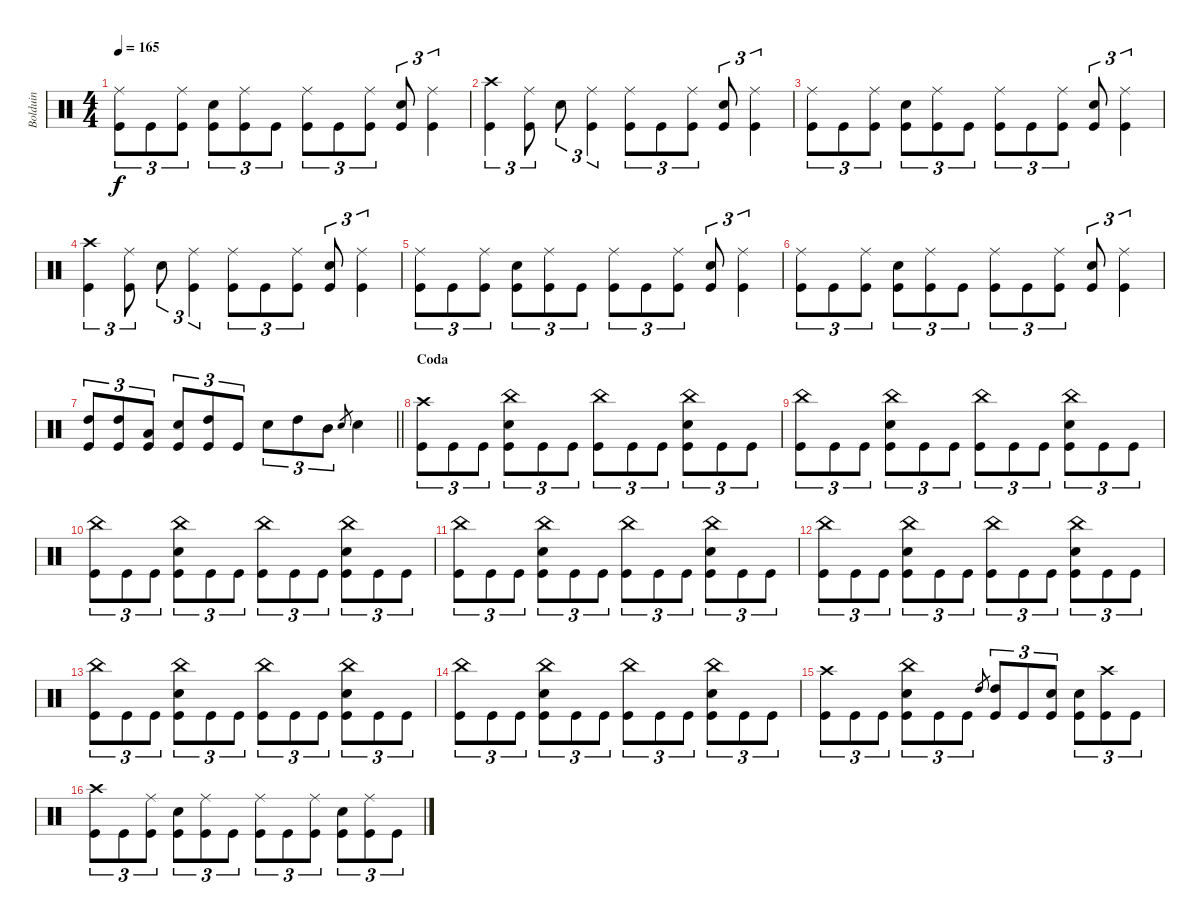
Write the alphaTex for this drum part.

\track ("Bolduin" "Bolduin") {instrument percussion}
\staff {score}
\articulation defaults
\ts (4 4)
\tempo 165
\clef neutral
\ks aminor
("Kick (hit)" "Ride (middle)").8{tu (3 2) dy f} "Kick (hit)".8{tu (3 2)} ("Kick (hit)" "Ride (middle)").8{tu (3 2)} ("Kick (hit)" "Snare (hit) 2").8{tu (3 2)} ("Kick (hit)" "Ride (middle)").8{tu (3 2)} "Kick (hit)".8{tu (3 2)} ("Kick (hit)" "Ride (middle)").8{tu (3 2)} "Kick (hit)".8{tu (3 2)} ("Kick (hit)" "Ride (middle)").8{tu (3 2)} ("Kick (hit)" "Snare (hit) 2").8{tu (3 2)} ("Kick (hit)" "Ride (middle)").4{tu (3 2)} |
("Crash high (hit)" "Kick (hit)").4{tu (3 2)} ("Kick (hit)" "Ride (middle)").8{tu (3 2)} "Snare (hit) 2".8{tu (3 2)} ("Kick (hit)" "Ride (middle)").4{tu (3 2)} ("Kick (hit)" "Ride (middle)").8{tu (3 2)} "Kick (hit)".8{tu (3 2)} ("Kick (hit)" "Ride (middle)").8{tu (3 2)} ("Kick (hit)" "Snare (hit) 2").8{tu (3 2)} ("Kick (hit)" "Ride (middle)").4{tu (3 2)} |
("Kick (hit)" "Ride (middle)").8{tu (3 2)} "Kick (hit)".8{tu (3 2)} ("Kick (hit)" "Ride (middle)").8{tu (3 2)} ("Kick (hit)" "Snare (hit) 2").8{tu (3 2)} ("Kick (hit)" "Ride (middle)").8{tu (3 2)} "Kick (hit)".8{tu (3 2)} ("Kick (hit)" "Ride (middle)").8{tu (3 2)} "Kick (hit)".8{tu (3 2)} ("Kick (hit)" "Ride (middle)").8{tu (3 2)} ("Kick (hit)" "Snare (hit) 2").8{tu (3 2)} ("Kick (hit)" "Ride (middle)").4{tu (3 2)} |
("Crash high (hit)" "Kick (hit)").4{tu (3 2)} ("Kick (hit)" "Ride (middle)").8{tu (3 2)} "Snare (hit) 2".8{tu (3 2)} ("Kick (hit)" "Ride (middle)").4{tu (3 2)} ("Kick (hit)" "Ride (middle)").8{tu (3 2)} "Kick (hit)".8{tu (3 2)} ("Kick (hit)" "Ride (middle)").8{tu (3 2)} ("Kick (hit)" "Snare (hit) 2").8{tu (3 2)} ("Kick (hit)" "Ride (middle)").4{tu (3 2)} |
("Kick (hit)" "Ride (middle)").8{tu (3 2)} "Kick (hit)".8{tu (3 2)} ("Kick (hit)" "Ride (middle)").8{tu (3 2)} ("Kick (hit)" "Snare (hit) 2").8{tu (3 2)} ("Kick (hit)" "Ride (middle)").8{tu (3 2)} "Kick (hit)".8{tu (3 2)} ("Kick (hit)" "Ride (middle)").8{tu (3 2)} "Kick (hit)".8{tu (3 2)} ("Kick (hit)" "Ride (middle)").8{tu (3 2)} ("Kick (hit)" "Snare (hit) 2").8{tu (3 2)} ("Kick (hit)" "Ride (middle)").4{tu (3 2)} |
("Kick (hit)" "Ride (middle)").8{tu (3 2)} "Kick (hit)".8{tu (3 2)} ("Kick (hit)" "Ride (middle)").8{tu (3 2)} ("Kick (hit)" "Snare (hit) 2").8{tu (3 2)} ("Kick (hit)" "Ride (middle)").8{tu (3 2)} "Kick (hit)".8{tu (3 2)} ("Kick (hit)" "Ride (middle)").8{tu (3 2)} "Kick (hit)".8{tu (3 2)} ("Kick (hit)" "Ride (middle)").8{tu (3 2)} ("Kick (hit)" "Snare (hit) 2").8{tu (3 2)} ("Kick (hit)" "Ride (middle)").4{tu (3 2)} |
\barLineRight lightlight
("High Tom (hit)" "Kick (hit)").8{tu (3 2)} ("High Tom (hit)" "Kick (hit)").8{tu (3 2)} ("Low Tom (hit)" "Kick (hit)").8{tu (3 2)} ("Kick (hit)" "Snare (hit) 2").8{tu (3 2)} ("High Tom (hit)" "Kick (hit)").8{tu (3 2)} "Kick (hit)".8{tu (3 2)} "Snare (hit) 2".8{tu (3 2)} "High Tom (hit)".8{tu (3 2)} "Mid Tom (hit)".8{tu (3 2)} "Snare (hit) 2".8{gr} "Snare (hit) 2".4 |
\section ("" "Coda")
("Crash high (hit)" "Kick (hit)").8{tu (3 2)} "Kick (hit)".8{tu (3 2)} "Kick (hit)".8{tu (3 2)} ("China (hit)" "Kick (hit)" "Snare (hit) 2").8{tu (3 2)} "Kick (hit)".8{tu (3 2)} "Kick (hit)".8{tu (3 2)} ("China (hit)" "Kick (hit)").8{tu (3 2)} "Kick (hit)".8{tu (3 2)} "Kick (hit)".8{tu (3 2)} ("China (hit)" "Kick (hit)" "Snare (hit) 2").8{tu (3 2)} "Kick (hit)".8{tu (3 2)} "Kick (hit)".8{tu (3 2)} |
("China (hit)" "Kick (hit)").8{tu (3 2)} "Kick (hit)".8{tu (3 2)} "Kick (hit)".8{tu (3 2)} ("China (hit)" "Kick (hit)" "Snare (hit) 2").8{tu (3 2)} "Kick (hit)".8{tu (3 2)} "Kick (hit)".8{tu (3 2)} ("China (hit)" "Kick (hit)").8{tu (3 2)} "Kick (hit)".8{tu (3 2)} "Kick (hit)".8{tu (3 2)} ("China (hit)" "Kick (hit)" "Snare (hit) 2").8{tu (3 2)} "Kick (hit)".8{tu (3 2)} "Kick (hit)".8{tu (3 2)} |
("China (hit)" "Kick (hit)").8{tu (3 2)} "Kick (hit)".8{tu (3 2)} "Kick (hit)".8{tu (3 2)} ("China (hit)" "Kick (hit)" "Snare (hit) 2").8{tu (3 2)} "Kick (hit)".8{tu (3 2)} "Kick (hit)".8{tu (3 2)} ("China (hit)" "Kick (hit)").8{tu (3 2)} "Kick (hit)".8{tu (3 2)} "Kick (hit)".8{tu (3 2)} ("China (hit)" "Kick (hit)" "Snare (hit) 2").8{tu (3 2)} "Kick (hit)".8{tu (3 2)} "Kick (hit)".8{tu (3 2)} |
("China (hit)" "Kick (hit)").8{tu (3 2)} "Kick (hit)".8{tu (3 2)} "Kick (hit)".8{tu (3 2)} ("China (hit)" "Kick (hit)" "Snare (hit) 2").8{tu (3 2)} "Kick (hit)".8{tu (3 2)} "Kick (hit)".8{tu (3 2)} ("China (hit)" "Kick (hit)").8{tu (3 2)} "Kick (hit)".8{tu (3 2)} "Kick (hit)".8{tu (3 2)} ("China (hit)" "Kick (hit)" "Snare (hit) 2").8{tu (3 2)} "Kick (hit)".8{tu (3 2)} "Kick (hit)".8{tu (3 2)} |
("China (hit)" "Kick (hit)").8{tu (3 2)} "Kick (hit)".8{tu (3 2)} "Kick (hit)".8{tu (3 2)} ("China (hit)" "Kick (hit)" "Snare (hit) 2").8{tu (3 2)} "Kick (hit)".8{tu (3 2)} "Kick (hit)".8{tu (3 2)} ("China (hit)" "Kick (hit)").8{tu (3 2)} "Kick (hit)".8{tu (3 2)} "Kick (hit)".8{tu (3 2)} ("China (hit)" "Kick (hit)" "Snare (hit) 2").8{tu (3 2)} "Kick (hit)".8{tu (3 2)} "Kick (hit)".8{tu (3 2)} |
("China (hit)" "Kick (hit)").8{tu (3 2)} "Kick (hit)".8{tu (3 2)} "Kick (hit)".8{tu (3 2)} ("China (hit)" "Kick (hit)" "Snare (hit) 2").8{tu (3 2)} "Kick (hit)".8{tu (3 2)} "Kick (hit)".8{tu (3 2)} ("China (hit)" "Kick (hit)").8{tu (3 2)} "Kick (hit)".8{tu (3 2)} "Kick (hit)".8{tu (3 2)} ("China (hit)" "Kick (hit)" "Snare (hit) 2").8{tu (3 2)} "Kick (hit)".8{tu (3 2)} "Kick (hit)".8{tu (3 2)} |
("China (hit)" "Kick (hit)").8{tu (3 2)} "Kick (hit)".8{tu (3 2)} "Kick (hit)".8{tu (3 2)} ("China (hit)" "Kick (hit)" "Snare (hit) 2").8{tu (3 2)} "Kick (hit)".8{tu (3 2)} "Kick (hit)".8{tu (3 2)} ("China (hit)" "Kick (hit)").8{tu (3 2)} "Kick (hit)".8{tu (3 2)} "Kick (hit)".8{tu (3 2)} ("China (hit)" "Kick (hit)" "Snare (hit) 2").8{tu (3 2)} "Kick (hit)".8{tu (3 2)} "Kick (hit)".8{tu (3 2)} |
("Crash high (hit)" "Kick (hit)").8{tu (3 2)} "Kick (hit)".8{tu (3 2)} "Kick (hit)".8{tu (3 2)} ("China (hit)" "Kick (hit)" "Snare (hit) 2").8{tu (3 2)} "Kick (hit)".8{tu (3 2)} "Kick (hit)".8{tu (3 2)} "High Tom (hit)".8{gr} ("High Tom (hit)" "Kick (hit)").8{tu (3 2)} "Kick (hit)".8{tu (3 2)} ("Snare (hit) 2" "Kick (hit)").8{tu (3 2)} ("Kick (hit)" "Snare (hit) 2").8{tu (3 2)} ("Crash high (hit)" "Kick (hit)").8{tu (3 2)} "Kick (hit)".8{tu (3 2)} |
("Crash high (hit)" "Kick (hit)").8{tu (3 2)} "Kick (hit)".8{tu (3 2)} ("Kick (hit)" "Ride (middle)").8{tu (3 2)} ("Kick (hit)" "Snare (hit) 2").8{tu (3 2)} ("Kick (hit)" "Ride (middle)").8{tu (3 2)} "Kick (hit)".8{tu (3 2)} ("Kick (hit)" "Ride (middle)").8{tu (3 2)} "Kick (hit)".8{tu (3 2)} ("Kick (hit)" "Ride (middle)").8{tu (3 2)} ("Kick (hit)" "Snare (hit) 2").8{tu (3 2)} ("Kick (hit)" "Ride (middle)").8{tu (3 2)} "Kick (hit)".8{tu (3 2)}
